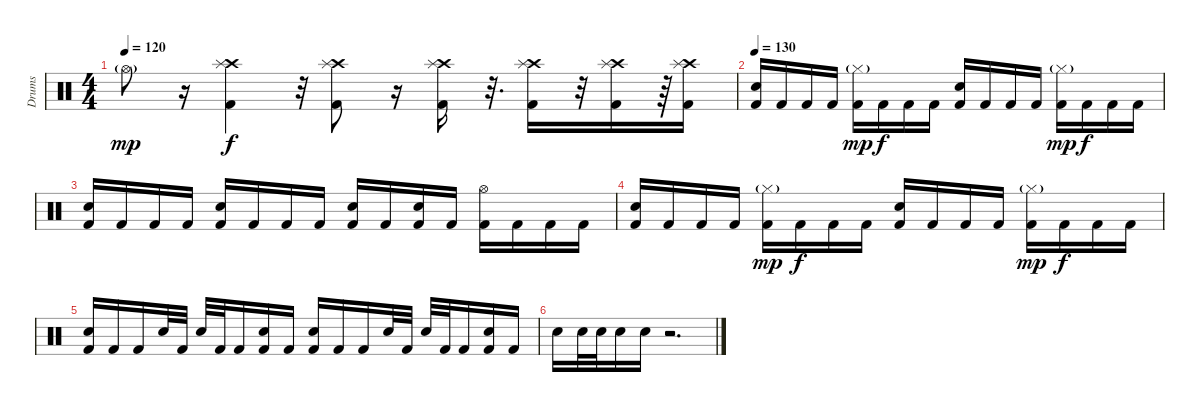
\track ("Drums" "Drums") {instrument percussion}
\staff {score}
\articulation defaults
\ts (4 4)
\tempo 120
\clef neutral
\ks c "Hi-Hat (open)"{g}.8{dy mp}
r.16 ("Crash high (hit)" "Splash (hit)" "Kick (hit) 2").4{dy f} r.32 ("Crash high (hit)" "Splash (hit)" "Kick (hit) 2").8 r.16 ("Crash high (hit)" "Splash (hit)" "Kick (hit) 2").16 r.32{d} ("Crash high (hit)" "Splash (hit)" "Kick (hit) 2").16 r.32 ("Crash high (hit)" "Splash (hit)" "Kick (hit) 2").16 r.64 ("Crash high (hit)" "Splash (hit)" "Kick (hit) 2").16 |
\tempo 130
("Electric Snare (hit)" "Kick (hit) 2").16 "Kick (hit) 2".16 "Kick (hit) 2".16 "Kick (hit) 2".16 ("Hi-Hat (closed)"{g} "Kick (hit) 2").16{dy mp} "Kick (hit) 2".16{dy f} "Kick (hit) 2".16 "Kick (hit) 2".16 ("Electric Snare (hit)" "Kick (hit) 2").16 "Kick (hit) 2".16 "Kick (hit) 2".16 "Kick (hit) 2".16 ("Hi-Hat (closed)"{g} "Kick (hit) 2").16{dy mp} "Kick (hit) 2".16{dy f} "Kick (hit) 2".16 "Kick (hit) 2".16 |
("Electric Snare (hit)" "Kick (hit) 2").16 "Kick (hit) 2".16 "Kick (hit) 2".16 "Kick (hit) 2".16 ("Electric Snare (hit)" "Kick (hit) 2").16 "Kick (hit) 2".16 "Kick (hit) 2".16 "Kick (hit) 2".16 ("Electric Snare (hit)" "Kick (hit) 2").16 "Kick (hit) 2".16 ("Electric Snare (hit)" "Kick (hit) 2").16 "Kick (hit) 2".16 ("Hi-Hat (open)" "Kick (hit) 2").16 "Kick (hit) 2".16 "Kick (hit) 2".16 "Kick (hit) 2".16 |
("Electric Snare (hit)" "Kick (hit) 2").16 "Kick (hit) 2".16 "Kick (hit) 2".16 "Kick (hit) 2".16 ("Hi-Hat (closed)"{g} "Kick (hit) 2").16{dy mp} "Kick (hit) 2".16{dy f} "Kick (hit) 2".16 "Kick (hit) 2".16 ("Electric Snare (hit)" "Kick (hit) 2").16 "Kick (hit) 2".16 "Kick (hit) 2".16 "Kick (hit) 2".16 ("Hi-Hat (closed)"{g} "Kick (hit) 2").16{dy mp} "Kick (hit) 2".16{dy f} "Kick (hit) 2".16 "Kick (hit) 2".16 |
("Electric Snare (hit)" "Kick (hit) 2").16 "Kick (hit) 2".16 "Kick (hit) 2".16 "Electric Snare (hit)".32 "Kick (hit) 2".32 "Electric Snare (hit)".32 "Kick (hit) 2".32 "Kick (hit) 2".16 ("Electric Snare (hit)" "Kick (hit) 2").16 "Kick (hit) 2".16 ("Electric Snare (hit)" "Kick (hit) 2").16 "Kick (hit) 2".16 "Kick (hit) 2".16 "Electric Snare (hit)".32 "Kick (hit) 2".32 "Electric Snare (hit)".32 "Kick (hit) 2".32 "Kick (hit) 2".16 ("Electric Snare (hit)" "Kick (hit) 2").16 "Kick (hit) 2".16 |
"Electric Snare (hit)".16 "Electric Snare (hit)".32 "Electric Snare (hit)".32 "Electric Snare (hit)".16 "Electric Snare (hit)".16 r.2{d}
